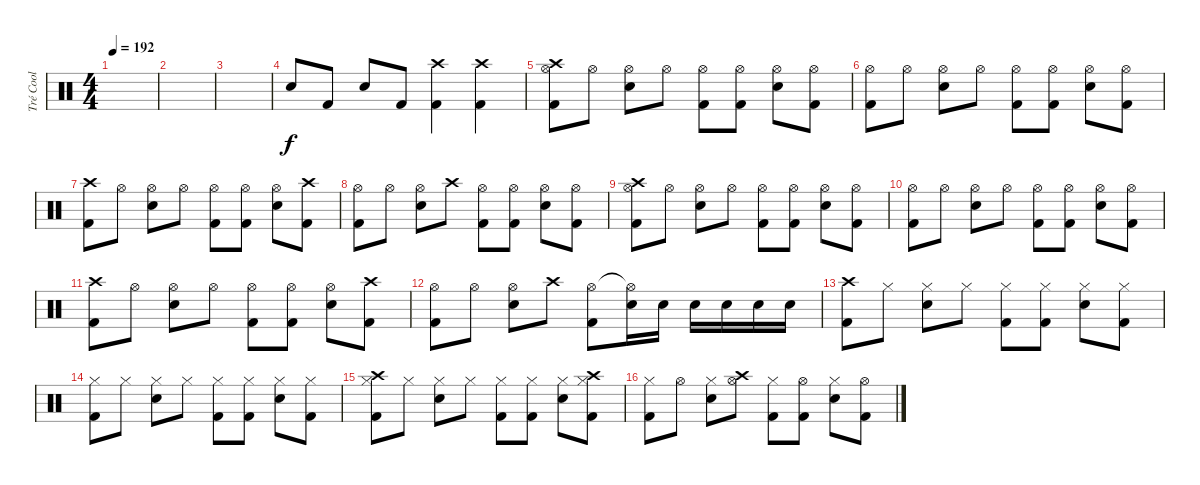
\track ("Tré Cool" "Tré Cool") {solo instrument percussion}
\staff {score}
\articulation defaults
\ts (4 4)
\tempo 192
\clef neutral
\ks c
|
|
|
"Electric Snare (hit)".8 "Kick (hit) 2".8 "Electric Snare (hit)".8 "Kick (hit) 2".8 ("Kick (hit) 2" "Crash high (hit)").4 ("Kick (hit) 2" "Crash high (hit)").4 |
("Hi-Hat (open)" "Kick (hit) 2" "Crash high (hit)").8 "Hi-Hat (open)".8 ("Hi-Hat (open)" "Electric Snare (hit)").8 "Hi-Hat (open)".8 ("Hi-Hat (open)" "Kick (hit) 2").8 ("Hi-Hat (open)" "Kick (hit) 2").8 ("Hi-Hat (open)" "Electric Snare (hit)").8 ("Hi-Hat (open)" "Kick (hit) 2").8 |
("Hi-Hat (open)" "Kick (hit) 2").8 "Hi-Hat (open)".8 ("Hi-Hat (open)" "Electric Snare (hit)").8 "Hi-Hat (open)".8 ("Hi-Hat (open)" "Kick (hit) 2").8 ("Hi-Hat (open)" "Kick (hit) 2").8 ("Hi-Hat (open)" "Electric Snare (hit)").8 ("Hi-Hat (open)" "Kick (hit) 2").8 |
("Kick (hit) 2" "Crash high (hit)").8 "Hi-Hat (open)".8 ("Hi-Hat (open)" "Electric Snare (hit)").8 "Hi-Hat (open)".8 ("Hi-Hat (open)" "Kick (hit) 2").8 ("Hi-Hat (open)" "Kick (hit) 2").8 ("Hi-Hat (open)" "Electric Snare (hit)").8 ("Kick (hit) 2" "Crash high (hit)").8 |
("Hi-Hat (open)" "Kick (hit) 2").8 "Hi-Hat (open)".8 ("Hi-Hat (open)" "Electric Snare (hit)").8 "Crash high (hit)".8 ("Hi-Hat (open)" "Kick (hit) 2").8 ("Hi-Hat (open)" "Kick (hit) 2").8 ("Hi-Hat (open)" "Electric Snare (hit)").8 ("Hi-Hat (open)" "Kick (hit) 2").8 |
("Hi-Hat (open)" "Kick (hit) 2" "Crash high (hit)").8 "Hi-Hat (open)".8 ("Hi-Hat (open)" "Electric Snare (hit)").8 "Hi-Hat (open)".8 ("Hi-Hat (open)" "Kick (hit) 2").8 ("Hi-Hat (open)" "Kick (hit) 2").8 ("Hi-Hat (open)" "Electric Snare (hit)").8 ("Hi-Hat (open)" "Kick (hit) 2").8 |
("Hi-Hat (open)" "Kick (hit) 2").8 "Hi-Hat (open)".8 ("Hi-Hat (open)" "Electric Snare (hit)").8 "Hi-Hat (open)".8 ("Hi-Hat (open)" "Kick (hit) 2").8 ("Hi-Hat (open)" "Kick (hit) 2").8 ("Hi-Hat (open)" "Electric Snare (hit)").8 ("Hi-Hat (open)" "Kick (hit) 2").8 |
("Kick (hit) 2" "Crash high (hit)").8 "Hi-Hat (open)".8 ("Hi-Hat (open)" "Electric Snare (hit)").8 "Hi-Hat (open)".8 ("Hi-Hat (open)" "Kick (hit) 2").8 ("Hi-Hat (open)" "Kick (hit) 2").8 ("Hi-Hat (open)" "Electric Snare (hit)").8 ("Kick (hit) 2" "Crash high (hit)").8 |
("Hi-Hat (open)" "Kick (hit) 2").8 "Hi-Hat (open)".8 ("Hi-Hat (open)" "Electric Snare (hit)").8 "Crash high (hit)".8 ("Hi-Hat (open)" "Kick (hit) 2").8 ("Hi-Hat (open)"{t} "Electric Snare (hit)").16 "Electric Snare (hit)".16 "Electric Snare (hit)".16 "Electric Snare (hit)".16 "Electric Snare (hit)".16 "Electric Snare (hit)".16 |
("Kick (hit) 2" "Crash high (hit)").8 "Hi-Hat (closed)".8 ("Hi-Hat (closed)" "Electric Snare (hit)").8 "Hi-Hat (closed)".8 ("Hi-Hat (closed)" "Kick (hit) 2").8 ("Hi-Hat (closed)" "Kick (hit) 2").8 ("Hi-Hat (closed)" "Electric Snare (hit)").8 ("Hi-Hat (closed)" "Kick (hit) 2").8 |
("Hi-Hat (closed)" "Kick (hit) 2").8 "Hi-Hat (closed)".8 ("Hi-Hat (closed)" "Electric Snare (hit)").8 "Hi-Hat (closed)".8 ("Hi-Hat (closed)" "Kick (hit) 2").8 ("Hi-Hat (closed)" "Kick (hit) 2").8 ("Hi-Hat (closed)" "Electric Snare (hit)").8 ("Hi-Hat (closed)" "Kick (hit) 2").8 |
("Hi-Hat (closed)" "Kick (hit) 2" "Crash high (hit)").8 "Hi-Hat (closed)".8 ("Hi-Hat (closed)" "Electric Snare (hit)").8 "Hi-Hat (closed)".8 ("Hi-Hat (closed)" "Kick (hit) 2").8 ("Hi-Hat (closed)" "Kick (hit) 2").8 ("Hi-Hat (closed)" "Electric Snare (hit)").8 ("Hi-Hat (closed)" "Kick (hit) 2" "Crash high (hit)").8 |
("Hi-Hat (closed)" "Kick (hit) 2").8 "Hi-Hat (open)".8 ("Hi-Hat (closed)" "Electric Snare (hit)").8 ("Hi-Hat (open)" "Crash high (hit)").8 ("Hi-Hat (closed)" "Kick (hit) 2").8 ("Hi-Hat (open)" "Kick (hit) 2").8 ("Hi-Hat (closed)" "Electric Snare (hit)").8 ("Hi-Hat (open)" "Kick (hit) 2").8
